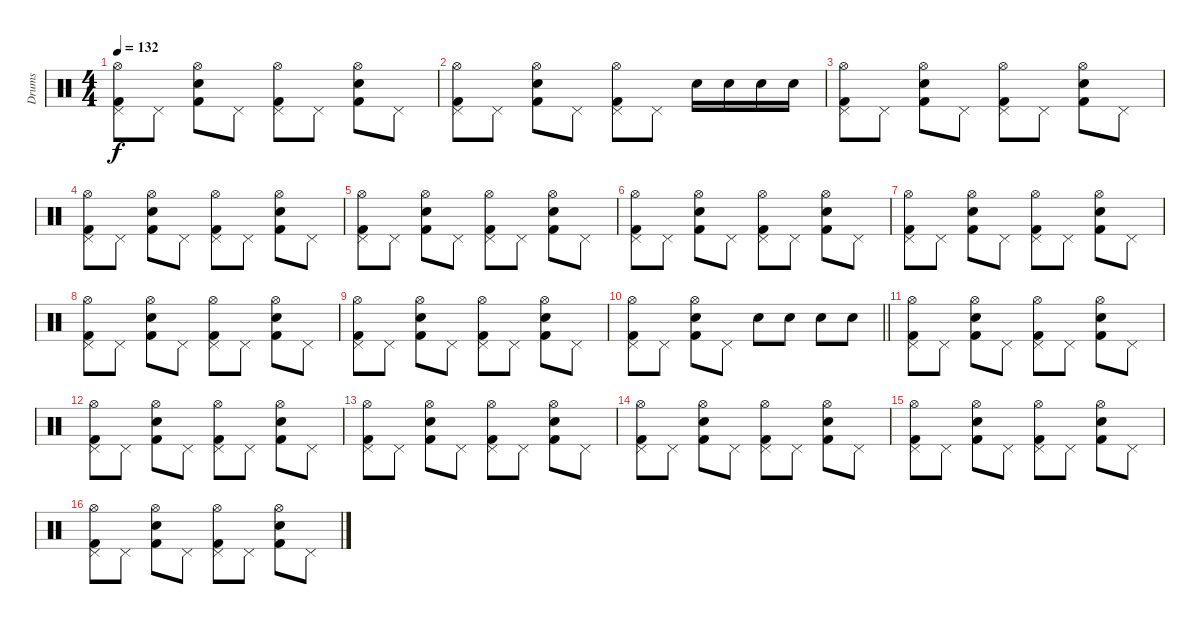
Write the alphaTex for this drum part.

\track ("Drums" "Drums") {instrument percussion}
\staff {score}
\articulation defaults
\ts (4 4)
\tempo 132
\clef neutral
\ks c
("Hi-Hat (open)" "Pedal Hi-Hat (hit)" "Kick (hit) 2").8{dy f} "Pedal Hi-Hat (hit)".8 ("Electric Snare (hit)" "Hi-Hat (open)" "Kick (hit) 2").8 "Pedal Hi-Hat (hit)".8 ("Hi-Hat (open)" "Pedal Hi-Hat (hit)" "Kick (hit) 2").8 "Pedal Hi-Hat (hit)".8 ("Electric Snare (hit)" "Hi-Hat (open)" "Kick (hit) 2").8 "Pedal Hi-Hat (hit)".8 |
("Hi-Hat (open)" "Pedal Hi-Hat (hit)" "Kick (hit) 2").8 "Pedal Hi-Hat (hit)".8 ("Electric Snare (hit)" "Hi-Hat (open)" "Kick (hit) 2").8 "Pedal Hi-Hat (hit)".8 ("Hi-Hat (open)" "Pedal Hi-Hat (hit)" "Kick (hit) 2").8 "Pedal Hi-Hat (hit)".8 "Electric Snare (hit)".16 "Electric Snare (hit)".16 "Electric Snare (hit)".16 "Electric Snare (hit)".16 |
("Hi-Hat (open)" "Pedal Hi-Hat (hit)" "Kick (hit) 2").8 "Pedal Hi-Hat (hit)".8 ("Electric Snare (hit)" "Hi-Hat (open)" "Kick (hit) 2").8 "Pedal Hi-Hat (hit)".8 ("Hi-Hat (open)" "Pedal Hi-Hat (hit)" "Kick (hit) 2").8 "Pedal Hi-Hat (hit)".8 ("Electric Snare (hit)" "Hi-Hat (open)" "Kick (hit) 2").8 "Pedal Hi-Hat (hit)".8 |
("Hi-Hat (open)" "Pedal Hi-Hat (hit)" "Kick (hit) 2").8 "Pedal Hi-Hat (hit)".8 ("Electric Snare (hit)" "Hi-Hat (open)" "Kick (hit) 2").8 "Pedal Hi-Hat (hit)".8 ("Hi-Hat (open)" "Pedal Hi-Hat (hit)" "Kick (hit) 2").8 "Pedal Hi-Hat (hit)".8 ("Electric Snare (hit)" "Hi-Hat (open)" "Kick (hit) 2").8 "Pedal Hi-Hat (hit)".8 |
("Hi-Hat (open)" "Pedal Hi-Hat (hit)" "Kick (hit) 2").8 "Pedal Hi-Hat (hit)".8 ("Electric Snare (hit)" "Hi-Hat (open)" "Kick (hit) 2").8 "Pedal Hi-Hat (hit)".8 ("Hi-Hat (open)" "Pedal Hi-Hat (hit)" "Kick (hit) 2").8 "Pedal Hi-Hat (hit)".8 ("Electric Snare (hit)" "Hi-Hat (open)" "Kick (hit) 2").8 "Pedal Hi-Hat (hit)".8 |
("Hi-Hat (open)" "Pedal Hi-Hat (hit)" "Kick (hit) 2").8 "Pedal Hi-Hat (hit)".8 ("Electric Snare (hit)" "Hi-Hat (open)" "Kick (hit) 2").8 "Pedal Hi-Hat (hit)".8 ("Hi-Hat (open)" "Pedal Hi-Hat (hit)" "Kick (hit) 2").8 "Pedal Hi-Hat (hit)".8 ("Electric Snare (hit)" "Hi-Hat (open)" "Kick (hit) 2").8 "Pedal Hi-Hat (hit)".8 |
("Hi-Hat (open)" "Pedal Hi-Hat (hit)" "Kick (hit) 2").8 "Pedal Hi-Hat (hit)".8 ("Electric Snare (hit)" "Hi-Hat (open)" "Kick (hit) 2").8 "Pedal Hi-Hat (hit)".8 ("Hi-Hat (open)" "Pedal Hi-Hat (hit)" "Kick (hit) 2").8 "Pedal Hi-Hat (hit)".8 ("Electric Snare (hit)" "Hi-Hat (open)" "Kick (hit) 2").8 "Pedal Hi-Hat (hit)".8 |
("Hi-Hat (open)" "Pedal Hi-Hat (hit)" "Kick (hit) 2").8 "Pedal Hi-Hat (hit)".8 ("Electric Snare (hit)" "Hi-Hat (open)" "Kick (hit) 2").8 "Pedal Hi-Hat (hit)".8 ("Hi-Hat (open)" "Pedal Hi-Hat (hit)" "Kick (hit) 2").8 "Pedal Hi-Hat (hit)".8 ("Electric Snare (hit)" "Hi-Hat (open)" "Kick (hit) 2").8 "Pedal Hi-Hat (hit)".8 |
("Hi-Hat (open)" "Pedal Hi-Hat (hit)" "Kick (hit) 2").8 "Pedal Hi-Hat (hit)".8 ("Electric Snare (hit)" "Hi-Hat (open)" "Kick (hit) 2").8 "Pedal Hi-Hat (hit)".8 ("Hi-Hat (open)" "Pedal Hi-Hat (hit)" "Kick (hit) 2").8 "Pedal Hi-Hat (hit)".8 ("Electric Snare (hit)" "Hi-Hat (open)" "Kick (hit) 2").8 "Pedal Hi-Hat (hit)".8 |
\barLineRight lightlight
("Hi-Hat (open)" "Pedal Hi-Hat (hit)" "Kick (hit) 2").8 "Pedal Hi-Hat (hit)".8 ("Electric Snare (hit)" "Hi-Hat (open)" "Kick (hit) 2").8 "Pedal Hi-Hat (hit)".8 "Electric Snare (hit)".8 "Electric Snare (hit)".8 "Electric Snare (hit)".8 "Electric Snare (hit)".8 |
\section ("" "")
("Hi-Hat (open)" "Pedal Hi-Hat (hit)" "Kick (hit) 2").8 "Pedal Hi-Hat (hit)".8 ("Electric Snare (hit)" "Hi-Hat (open)" "Kick (hit) 2").8 "Pedal Hi-Hat (hit)".8 ("Hi-Hat (open)" "Pedal Hi-Hat (hit)" "Kick (hit) 2").8 "Pedal Hi-Hat (hit)".8 ("Electric Snare (hit)" "Hi-Hat (open)" "Kick (hit) 2").8 "Pedal Hi-Hat (hit)".8 |
("Hi-Hat (open)" "Pedal Hi-Hat (hit)" "Kick (hit) 2").8 "Pedal Hi-Hat (hit)".8 ("Electric Snare (hit)" "Hi-Hat (open)" "Kick (hit) 2").8 "Pedal Hi-Hat (hit)".8 ("Hi-Hat (open)" "Pedal Hi-Hat (hit)" "Kick (hit) 2").8 "Pedal Hi-Hat (hit)".8 ("Electric Snare (hit)" "Hi-Hat (open)" "Kick (hit) 2").8 "Pedal Hi-Hat (hit)".8 |
("Hi-Hat (open)" "Pedal Hi-Hat (hit)" "Kick (hit) 2").8 "Pedal Hi-Hat (hit)".8 ("Electric Snare (hit)" "Hi-Hat (open)" "Kick (hit) 2").8 "Pedal Hi-Hat (hit)".8 ("Hi-Hat (open)" "Pedal Hi-Hat (hit)" "Kick (hit) 2").8 "Pedal Hi-Hat (hit)".8 ("Electric Snare (hit)" "Hi-Hat (open)" "Kick (hit) 2").8 "Pedal Hi-Hat (hit)".8 |
("Hi-Hat (open)" "Pedal Hi-Hat (hit)" "Kick (hit) 2").8 "Pedal Hi-Hat (hit)".8 ("Electric Snare (hit)" "Hi-Hat (open)" "Kick (hit) 2").8 "Pedal Hi-Hat (hit)".8 ("Hi-Hat (open)" "Pedal Hi-Hat (hit)" "Kick (hit) 2").8 "Pedal Hi-Hat (hit)".8 ("Electric Snare (hit)" "Hi-Hat (open)" "Kick (hit) 2").8 "Pedal Hi-Hat (hit)".8 |
("Hi-Hat (open)" "Pedal Hi-Hat (hit)" "Kick (hit) 2").8 "Pedal Hi-Hat (hit)".8 ("Electric Snare (hit)" "Hi-Hat (open)" "Kick (hit) 2").8 "Pedal Hi-Hat (hit)".8 ("Hi-Hat (open)" "Pedal Hi-Hat (hit)" "Kick (hit) 2").8 "Pedal Hi-Hat (hit)".8 ("Electric Snare (hit)" "Hi-Hat (open)" "Kick (hit) 2").8 "Pedal Hi-Hat (hit)".8 |
("Hi-Hat (open)" "Pedal Hi-Hat (hit)" "Kick (hit) 2").8 "Pedal Hi-Hat (hit)".8 ("Electric Snare (hit)" "Hi-Hat (open)" "Kick (hit) 2").8 "Pedal Hi-Hat (hit)".8 ("Hi-Hat (open)" "Pedal Hi-Hat (hit)" "Kick (hit) 2").8 "Pedal Hi-Hat (hit)".8 ("Electric Snare (hit)" "Hi-Hat (open)" "Kick (hit) 2").8 "Pedal Hi-Hat (hit)".8
